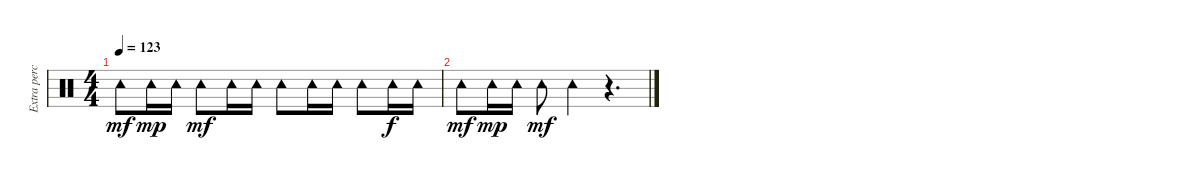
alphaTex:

\track ("Extra percussion" "Extra perc") {instrument percussion}
\staff {score}
\articulation defaults
\ts (4 4)
\tempo 123
\clef neutral
\ks c "Tambourine (hit)".8{dy mf} "Tambourine (hit)".16{dy mp} "Tambourine (hit)".16 "Tambourine (hit)".8{dy mf} "Tambourine (hit)".16 "Tambourine (hit)".16 "Tambourine (hit)".8 "Tambourine (hit)".16 "Tambourine (hit)".16 "Tambourine (hit)".8 "Tambourine (hit)".16{dy f} "Tambourine (hit)".16
|
"Tambourine (hit)".8{dy mf} "Tambourine (hit)".16{dy mp} "Tambourine (hit)".16 "Tambourine (hit)".8{dy mf} "Tambourine (hit)".4 r.4{d}
